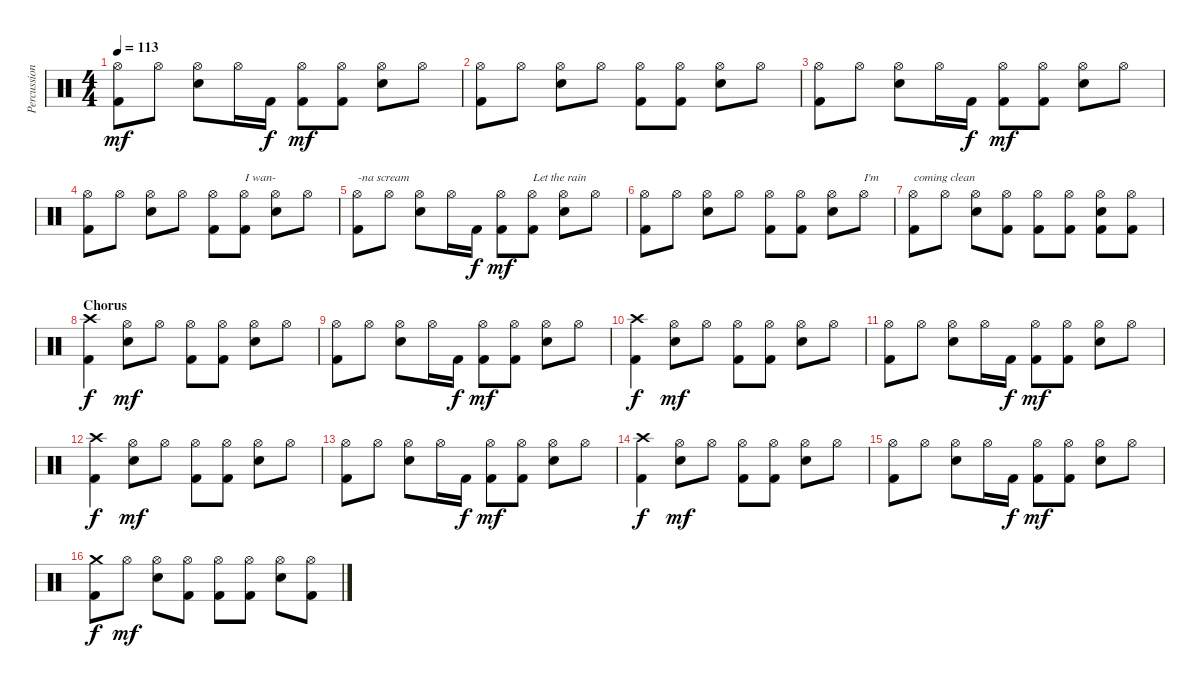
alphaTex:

\track ("Percussion" "Percussion") {instrument percussion}
\staff {score}
\articulation defaults
\ts (4 4)
\tempo 113
\clef neutral
\ks c
("Hi-Hat (open)" "Kick (hit) 2").8{dy mf} "Hi-Hat (open)".8 ("Hi-Hat (open)" "Electric Snare (hit)").8 "Hi-Hat (open)".16 "Kick (hit) 2".16{dy f} ("Hi-Hat (open)" "Kick (hit) 2").8{dy mf} ("Hi-Hat (open)" "Kick (hit) 2").8 ("Hi-Hat (open)" "Electric Snare (hit)").8 "Hi-Hat (open)".8 |
("Hi-Hat (open)" "Kick (hit) 2").8 "Hi-Hat (open)".8 ("Hi-Hat (open)" "Electric Snare (hit)").8 "Hi-Hat (open)".8 ("Hi-Hat (open)" "Kick (hit) 2").8 ("Hi-Hat (open)" "Kick (hit) 2").8 ("Hi-Hat (open)" "Electric Snare (hit)").8 "Hi-Hat (open)".8 |
("Hi-Hat (open)" "Kick (hit) 2").8 "Hi-Hat (open)".8 ("Hi-Hat (open)" "Electric Snare (hit)").8 "Hi-Hat (open)".16 "Kick (hit) 2".16{dy f} ("Hi-Hat (open)" "Kick (hit) 2").8{dy mf} ("Hi-Hat (open)" "Kick (hit) 2").8 ("Hi-Hat (open)" "Electric Snare (hit)").8 "Hi-Hat (open)".8 |
("Hi-Hat (open)" "Kick (hit) 2").8 "Hi-Hat (open)".8 ("Hi-Hat (open)" "Electric Snare (hit)").8 "Hi-Hat (open)".8 ("Hi-Hat (open)" "Kick (hit) 2").8 ("Hi-Hat (open)" "Kick (hit) 2").8{txt "I wan-"} ("Hi-Hat (open)" "Electric Snare (hit)").8 "Hi-Hat (open)".8 |
("Hi-Hat (open)" "Kick (hit) 2").8{txt "-na scream"} "Hi-Hat (open)".8 ("Hi-Hat (open)" "Electric Snare (hit)").8 "Hi-Hat (open)".16 "Kick (hit) 2".16{dy f} ("Hi-Hat (open)" "Kick (hit) 2").8{dy mf} ("Hi-Hat (open)" "Kick (hit) 2").8{txt "Let the rain"} ("Hi-Hat (open)" "Electric Snare (hit)").8 "Hi-Hat (open)".8 |
("Hi-Hat (open)" "Kick (hit) 2").8 "Hi-Hat (open)".8 ("Hi-Hat (open)" "Electric Snare (hit)").8 "Hi-Hat (open)".8 ("Hi-Hat (open)" "Kick (hit) 2").8 ("Hi-Hat (open)" "Kick (hit) 2").8 ("Hi-Hat (open)" "Electric Snare (hit)").8 "Hi-Hat (open)".8{txt "I'm"} |
("Hi-Hat (open)" "Kick (hit) 2").8{txt "coming clean"} "Hi-Hat (open)".8 ("Hi-Hat (open)" "Electric Snare (hit)").8 ("Hi-Hat (open)" "Kick (hit) 2").8 ("Hi-Hat (open)" "Kick (hit) 2").8 ("Hi-Hat (open)" "Kick (hit) 2").8 ("Hi-Hat (open)" "Electric Snare (hit)" "Kick (hit) 2").8 ("Hi-Hat (open)" "Kick (hit) 2").8 |
\section ("" "Chorus")
("Crash high (hit)" "Kick (hit) 2").4{dy f} ("Hi-Hat (open)" "Electric Snare (hit)").8{dy mf} "Hi-Hat (open)".8 ("Hi-Hat (open)" "Kick (hit) 2").8 ("Hi-Hat (open)" "Kick (hit) 2").8 ("Hi-Hat (open)" "Electric Snare (hit)").8 "Hi-Hat (open)".8 |
("Hi-Hat (open)" "Kick (hit) 2").8 "Hi-Hat (open)".8 ("Hi-Hat (open)" "Electric Snare (hit)").8 "Hi-Hat (open)".16 "Kick (hit) 2".16{dy f} ("Hi-Hat (open)" "Kick (hit) 2").8{dy mf} ("Hi-Hat (open)" "Kick (hit) 2").8 ("Hi-Hat (open)" "Electric Snare (hit)").8 "Hi-Hat (open)".8 |
("Crash high (hit)" "Kick (hit) 2").4{dy f} ("Hi-Hat (open)" "Electric Snare (hit)").8{dy mf} "Hi-Hat (open)".8 ("Hi-Hat (open)" "Kick (hit) 2").8 ("Hi-Hat (open)" "Kick (hit) 2").8 ("Hi-Hat (open)" "Electric Snare (hit)").8 "Hi-Hat (open)".8 |
("Hi-Hat (open)" "Kick (hit) 2").8 "Hi-Hat (open)".8 ("Hi-Hat (open)" "Electric Snare (hit)").8 "Hi-Hat (open)".16 "Kick (hit) 2".16{dy f} ("Hi-Hat (open)" "Kick (hit) 2").8{dy mf} ("Hi-Hat (open)" "Kick (hit) 2").8 ("Hi-Hat (open)" "Electric Snare (hit)").8 "Hi-Hat (open)".8 |
("Crash high (hit)" "Kick (hit) 2").4{dy f} ("Hi-Hat (open)" "Electric Snare (hit)").8{dy mf} "Hi-Hat (open)".8 ("Hi-Hat (open)" "Kick (hit) 2").8 ("Hi-Hat (open)" "Kick (hit) 2").8 ("Hi-Hat (open)" "Electric Snare (hit)").8 "Hi-Hat (open)".8 |
("Hi-Hat (open)" "Kick (hit) 2").8 "Hi-Hat (open)".8 ("Hi-Hat (open)" "Electric Snare (hit)").8 "Hi-Hat (open)".16 "Kick (hit) 2".16{dy f} ("Hi-Hat (open)" "Kick (hit) 2").8{dy mf} ("Hi-Hat (open)" "Kick (hit) 2").8 ("Hi-Hat (open)" "Electric Snare (hit)").8 "Hi-Hat (open)".8 |
("Crash high (hit)" "Kick (hit) 2").4{dy f} ("Hi-Hat (open)" "Electric Snare (hit)").8{dy mf} "Hi-Hat (open)".8 ("Hi-Hat (open)" "Kick (hit) 2").8 ("Hi-Hat (open)" "Kick (hit) 2").8 ("Hi-Hat (open)" "Electric Snare (hit)").8 "Hi-Hat (open)".8 |
("Hi-Hat (open)" "Kick (hit) 2").8 "Hi-Hat (open)".8 ("Hi-Hat (open)" "Electric Snare (hit)").8 "Hi-Hat (open)".16 "Kick (hit) 2".16{dy f} ("Hi-Hat (open)" "Kick (hit) 2").8{dy mf} ("Hi-Hat (open)" "Kick (hit) 2").8 ("Hi-Hat (open)" "Electric Snare (hit)").8 "Hi-Hat (open)".8 |
("Crash medium (hit)" "Kick (hit) 2").8{dy f} "Hi-Hat (open)".8{dy mf} ("Hi-Hat (open)" "Electric Snare (hit)").8 ("Hi-Hat (open)" "Kick (hit) 2").8 ("Hi-Hat (open)" "Kick (hit) 2").8 ("Hi-Hat (open)" "Kick (hit) 2").8 ("Hi-Hat (open)" "Electric Snare (hit)").8 ("Hi-Hat (open)" "Kick (hit) 2").8
